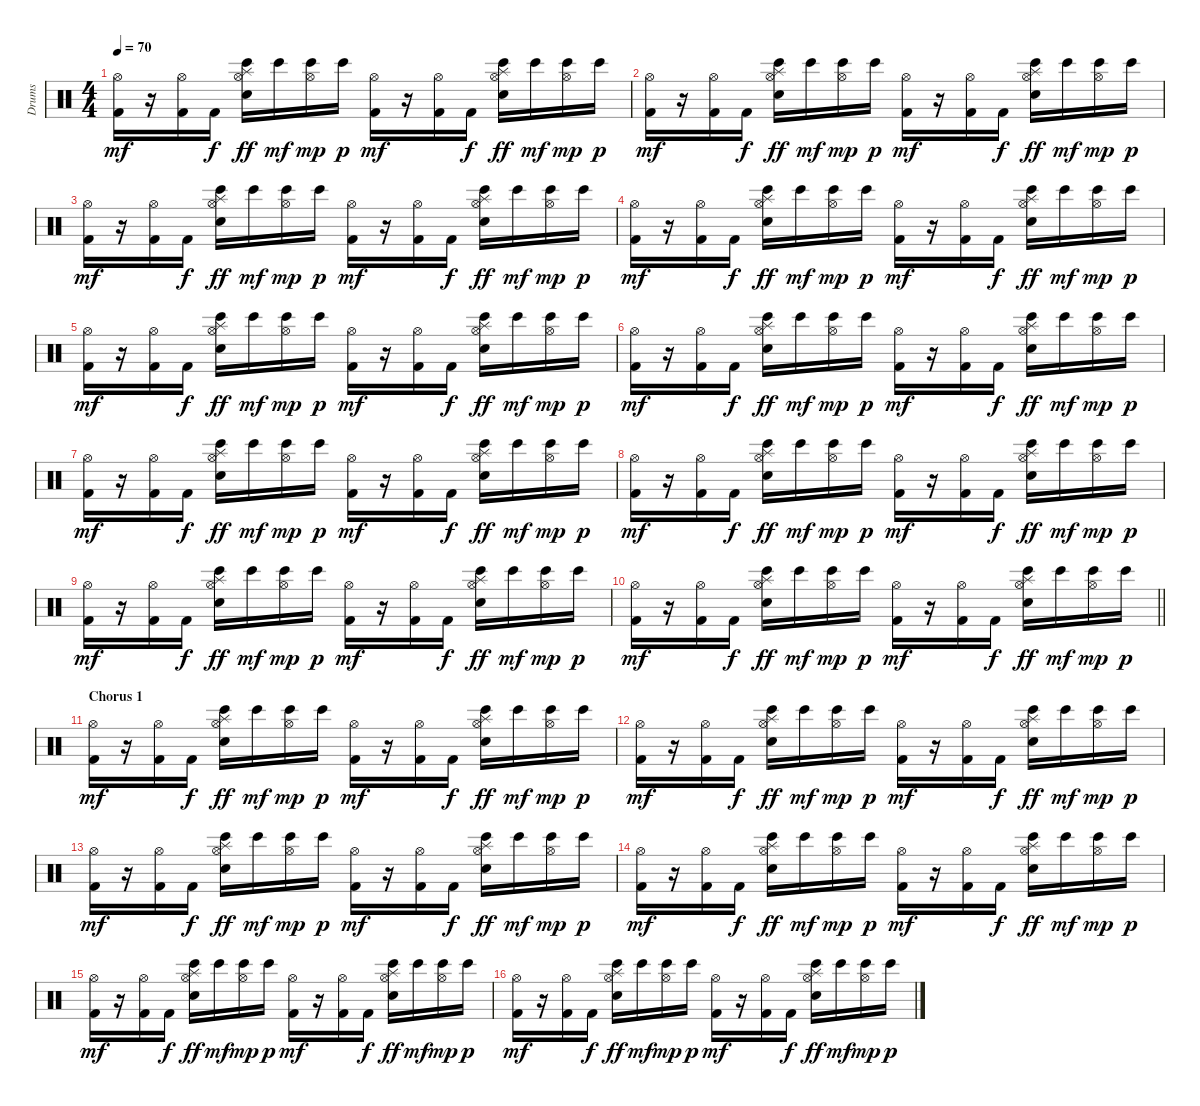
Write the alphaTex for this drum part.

\track ("Drums" "Drums") {instrument percussion}
\staff {score}
\articulation defaults
\ts (4 4)
\tempo 70
\clef neutral
\ks c
("Hi-Hat (open)" "Kick (hit) 2").16{dy mf} r.16 ("Hi-Hat (open)" "Kick (hit) 2").16 "Kick (hit) 2".16{dy f} ("Hi-Hat (open)" "Splash (hit)" "Snare (hit) 2" "Bongo High (hit)").16{dy ff} "Bongo High (hit)".16{dy mf} ("Hi-Hat (open)" "Bongo High (hit)").16{dy mp} "Bongo High (hit)".16{dy p} ("Hi-Hat (open)" "Kick (hit) 2").16{dy mf} r.16 ("Hi-Hat (open)" "Kick (hit) 2").16 "Kick (hit) 2".16{dy f} ("Hi-Hat (open)" "Splash (hit)" "Snare (hit) 2" "Bongo High (hit)").16{dy ff} "Bongo High (hit)".16{dy mf} ("Hi-Hat (open)" "Bongo High (hit)").16{dy mp} "Bongo High (hit)".16{dy p} |
("Hi-Hat (open)" "Kick (hit) 2").16{dy mf} r.16 ("Hi-Hat (open)" "Kick (hit) 2").16 "Kick (hit) 2".16{dy f} ("Hi-Hat (open)" "Splash (hit)" "Snare (hit) 2" "Bongo High (hit)").16{dy ff} "Bongo High (hit)".16{dy mf} ("Hi-Hat (open)" "Bongo High (hit)").16{dy mp} "Bongo High (hit)".16{dy p} ("Hi-Hat (open)" "Kick (hit) 2").16{dy mf} r.16 ("Hi-Hat (open)" "Kick (hit) 2").16 "Kick (hit) 2".16{dy f} ("Hi-Hat (open)" "Splash (hit)" "Snare (hit) 2" "Bongo High (hit)").16{dy ff} "Bongo High (hit)".16{dy mf} ("Hi-Hat (open)" "Bongo High (hit)").16{dy mp} "Bongo High (hit)".16{dy p} |
("Hi-Hat (open)" "Kick (hit) 2").16{dy mf} r.16 ("Hi-Hat (open)" "Kick (hit) 2").16 "Kick (hit) 2".16{dy f} ("Hi-Hat (open)" "Splash (hit)" "Snare (hit) 2" "Bongo High (hit)").16{dy ff} "Bongo High (hit)".16{dy mf} ("Hi-Hat (open)" "Bongo High (hit)").16{dy mp} "Bongo High (hit)".16{dy p} ("Hi-Hat (open)" "Kick (hit) 2").16{dy mf} r.16 ("Hi-Hat (open)" "Kick (hit) 2").16 "Kick (hit) 2".16{dy f} ("Hi-Hat (open)" "Splash (hit)" "Snare (hit) 2" "Bongo High (hit)").16{dy ff} "Bongo High (hit)".16{dy mf} ("Hi-Hat (open)" "Bongo High (hit)").16{dy mp} "Bongo High (hit)".16{dy p} |
("Hi-Hat (open)" "Kick (hit) 2").16{dy mf} r.16 ("Hi-Hat (open)" "Kick (hit) 2").16 "Kick (hit) 2".16{dy f} ("Hi-Hat (open)" "Splash (hit)" "Snare (hit) 2" "Bongo High (hit)").16{dy ff} "Bongo High (hit)".16{dy mf} ("Hi-Hat (open)" "Bongo High (hit)").16{dy mp} "Bongo High (hit)".16{dy p} ("Hi-Hat (open)" "Kick (hit) 2").16{dy mf} r.16 ("Hi-Hat (open)" "Kick (hit) 2").16 "Kick (hit) 2".16{dy f} ("Hi-Hat (open)" "Splash (hit)" "Snare (hit) 2" "Bongo High (hit)").16{dy ff} "Bongo High (hit)".16{dy mf} ("Hi-Hat (open)" "Bongo High (hit)").16{dy mp} "Bongo High (hit)".16{dy p} |
("Hi-Hat (open)" "Kick (hit) 2").16{dy mf} r.16 ("Hi-Hat (open)" "Kick (hit) 2").16 "Kick (hit) 2".16{dy f} ("Hi-Hat (open)" "Splash (hit)" "Snare (hit) 2" "Bongo High (hit)").16{dy ff} "Bongo High (hit)".16{dy mf} ("Hi-Hat (open)" "Bongo High (hit)").16{dy mp} "Bongo High (hit)".16{dy p} ("Hi-Hat (open)" "Kick (hit) 2").16{dy mf} r.16 ("Hi-Hat (open)" "Kick (hit) 2").16 "Kick (hit) 2".16{dy f} ("Hi-Hat (open)" "Splash (hit)" "Snare (hit) 2" "Bongo High (hit)").16{dy ff} "Bongo High (hit)".16{dy mf} ("Hi-Hat (open)" "Bongo High (hit)").16{dy mp} "Bongo High (hit)".16{dy p} |
("Hi-Hat (open)" "Kick (hit) 2").16{dy mf} r.16 ("Hi-Hat (open)" "Kick (hit) 2").16 "Kick (hit) 2".16{dy f} ("Hi-Hat (open)" "Splash (hit)" "Snare (hit) 2" "Bongo High (hit)").16{dy ff} "Bongo High (hit)".16{dy mf} ("Hi-Hat (open)" "Bongo High (hit)").16{dy mp} "Bongo High (hit)".16{dy p} ("Hi-Hat (open)" "Kick (hit) 2").16{dy mf} r.16 ("Hi-Hat (open)" "Kick (hit) 2").16 "Kick (hit) 2".16{dy f} ("Hi-Hat (open)" "Splash (hit)" "Snare (hit) 2" "Bongo High (hit)").16{dy ff} "Bongo High (hit)".16{dy mf} ("Hi-Hat (open)" "Bongo High (hit)").16{dy mp} "Bongo High (hit)".16{dy p} |
("Hi-Hat (open)" "Kick (hit) 2").16{dy mf} r.16 ("Hi-Hat (open)" "Kick (hit) 2").16 "Kick (hit) 2".16{dy f} ("Hi-Hat (open)" "Splash (hit)" "Snare (hit) 2" "Bongo High (hit)").16{dy ff} "Bongo High (hit)".16{dy mf} ("Hi-Hat (open)" "Bongo High (hit)").16{dy mp} "Bongo High (hit)".16{dy p} ("Hi-Hat (open)" "Kick (hit) 2").16{dy mf} r.16 ("Hi-Hat (open)" "Kick (hit) 2").16 "Kick (hit) 2".16{dy f} ("Hi-Hat (open)" "Splash (hit)" "Snare (hit) 2" "Bongo High (hit)").16{dy ff} "Bongo High (hit)".16{dy mf} ("Hi-Hat (open)" "Bongo High (hit)").16{dy mp} "Bongo High (hit)".16{dy p} |
("Hi-Hat (open)" "Kick (hit) 2").16{dy mf} r.16 ("Hi-Hat (open)" "Kick (hit) 2").16 "Kick (hit) 2".16{dy f} ("Hi-Hat (open)" "Splash (hit)" "Snare (hit) 2" "Bongo High (hit)").16{dy ff} "Bongo High (hit)".16{dy mf} ("Hi-Hat (open)" "Bongo High (hit)").16{dy mp} "Bongo High (hit)".16{dy p} ("Hi-Hat (open)" "Kick (hit) 2").16{dy mf} r.16 ("Hi-Hat (open)" "Kick (hit) 2").16 "Kick (hit) 2".16{dy f} ("Hi-Hat (open)" "Splash (hit)" "Snare (hit) 2" "Bongo High (hit)").16{dy ff} "Bongo High (hit)".16{dy mf} ("Hi-Hat (open)" "Bongo High (hit)").16{dy mp} "Bongo High (hit)".16{dy p} |
("Hi-Hat (open)" "Kick (hit) 2").16{dy mf} r.16 ("Hi-Hat (open)" "Kick (hit) 2").16 "Kick (hit) 2".16{dy f} ("Hi-Hat (open)" "Splash (hit)" "Snare (hit) 2" "Bongo High (hit)").16{dy ff} "Bongo High (hit)".16{dy mf} ("Hi-Hat (open)" "Bongo High (hit)").16{dy mp} "Bongo High (hit)".16{dy p} ("Hi-Hat (open)" "Kick (hit) 2").16{dy mf} r.16 ("Hi-Hat (open)" "Kick (hit) 2").16 "Kick (hit) 2".16{dy f} ("Hi-Hat (open)" "Splash (hit)" "Snare (hit) 2" "Bongo High (hit)").16{dy ff} "Bongo High (hit)".16{dy mf} ("Hi-Hat (open)" "Bongo High (hit)").16{dy mp} "Bongo High (hit)".16{dy p} |
\barLineRight lightlight
("Hi-Hat (open)" "Kick (hit) 2").16{dy mf} r.16 ("Hi-Hat (open)" "Kick (hit) 2").16 "Kick (hit) 2".16{dy f} ("Hi-Hat (open)" "Splash (hit)" "Snare (hit) 2" "Bongo High (hit)").16{dy ff} "Bongo High (hit)".16{dy mf} ("Hi-Hat (open)" "Bongo High (hit)").16{dy mp} "Bongo High (hit)".16{dy p} ("Hi-Hat (open)" "Kick (hit) 2").16{dy mf} r.16 ("Hi-Hat (open)" "Kick (hit) 2").16 "Kick (hit) 2".16{dy f} ("Hi-Hat (open)" "Splash (hit)" "Snare (hit) 2" "Bongo High (hit)").16{dy ff} "Bongo High (hit)".16{dy mf} ("Hi-Hat (open)" "Bongo High (hit)").16{dy mp} "Bongo High (hit)".16{dy p} |
\section ("" "Chorus 1")
("Hi-Hat (open)" "Kick (hit) 2").16{dy mf} r.16 ("Hi-Hat (open)" "Kick (hit) 2").16 "Kick (hit) 2".16{dy f} ("Hi-Hat (open)" "Splash (hit)" "Snare (hit) 2" "Bongo High (hit)").16{dy ff} "Bongo High (hit)".16{dy mf} ("Hi-Hat (open)" "Bongo High (hit)").16{dy mp} "Bongo High (hit)".16{dy p} ("Hi-Hat (open)" "Kick (hit) 2").16{dy mf} r.16 ("Hi-Hat (open)" "Kick (hit) 2").16 "Kick (hit) 2".16{dy f} ("Hi-Hat (open)" "Splash (hit)" "Snare (hit) 2" "Bongo High (hit)").16{dy ff} "Bongo High (hit)".16{dy mf} ("Hi-Hat (open)" "Bongo High (hit)").16{dy mp} "Bongo High (hit)".16{dy p} |
("Hi-Hat (open)" "Kick (hit) 2").16{dy mf} r.16 ("Hi-Hat (open)" "Kick (hit) 2").16 "Kick (hit) 2".16{dy f} ("Hi-Hat (open)" "Splash (hit)" "Snare (hit) 2" "Bongo High (hit)").16{dy ff} "Bongo High (hit)".16{dy mf} ("Hi-Hat (open)" "Bongo High (hit)").16{dy mp} "Bongo High (hit)".16{dy p} ("Hi-Hat (open)" "Kick (hit) 2").16{dy mf} r.16 ("Hi-Hat (open)" "Kick (hit) 2").16 "Kick (hit) 2".16{dy f} ("Hi-Hat (open)" "Splash (hit)" "Snare (hit) 2" "Bongo High (hit)").16{dy ff} "Bongo High (hit)".16{dy mf} ("Hi-Hat (open)" "Bongo High (hit)").16{dy mp} "Bongo High (hit)".16{dy p} |
("Hi-Hat (open)" "Kick (hit) 2").16{dy mf} r.16 ("Hi-Hat (open)" "Kick (hit) 2").16 "Kick (hit) 2".16{dy f} ("Hi-Hat (open)" "Splash (hit)" "Snare (hit) 2" "Bongo High (hit)").16{dy ff} "Bongo High (hit)".16{dy mf} ("Hi-Hat (open)" "Bongo High (hit)").16{dy mp} "Bongo High (hit)".16{dy p} ("Hi-Hat (open)" "Kick (hit) 2").16{dy mf} r.16 ("Hi-Hat (open)" "Kick (hit) 2").16 "Kick (hit) 2".16{dy f} ("Hi-Hat (open)" "Splash (hit)" "Snare (hit) 2" "Bongo High (hit)").16{dy ff} "Bongo High (hit)".16{dy mf} ("Hi-Hat (open)" "Bongo High (hit)").16{dy mp} "Bongo High (hit)".16{dy p} |
("Hi-Hat (open)" "Kick (hit) 2").16{dy mf} r.16 ("Hi-Hat (open)" "Kick (hit) 2").16 "Kick (hit) 2".16{dy f} ("Hi-Hat (open)" "Splash (hit)" "Snare (hit) 2" "Bongo High (hit)").16{dy ff} "Bongo High (hit)".16{dy mf} ("Hi-Hat (open)" "Bongo High (hit)").16{dy mp} "Bongo High (hit)".16{dy p} ("Hi-Hat (open)" "Kick (hit) 2").16{dy mf} r.16 ("Hi-Hat (open)" "Kick (hit) 2").16 "Kick (hit) 2".16{dy f} ("Hi-Hat (open)" "Splash (hit)" "Snare (hit) 2" "Bongo High (hit)").16{dy ff} "Bongo High (hit)".16{dy mf} ("Hi-Hat (open)" "Bongo High (hit)").16{dy mp} "Bongo High (hit)".16{dy p} |
("Hi-Hat (open)" "Kick (hit) 2").16{dy mf} r.16 ("Hi-Hat (open)" "Kick (hit) 2").16 "Kick (hit) 2".16{dy f} ("Hi-Hat (open)" "Splash (hit)" "Snare (hit) 2" "Bongo High (hit)").16{dy ff} "Bongo High (hit)".16{dy mf} ("Hi-Hat (open)" "Bongo High (hit)").16{dy mp} "Bongo High (hit)".16{dy p} ("Hi-Hat (open)" "Kick (hit) 2").16{dy mf} r.16 ("Hi-Hat (open)" "Kick (hit) 2").16 "Kick (hit) 2".16{dy f} ("Hi-Hat (open)" "Splash (hit)" "Snare (hit) 2" "Bongo High (hit)").16{dy ff} "Bongo High (hit)".16{dy mf} ("Hi-Hat (open)" "Bongo High (hit)").16{dy mp} "Bongo High (hit)".16{dy p} |
("Hi-Hat (open)" "Kick (hit) 2").16{dy mf} r.16 ("Hi-Hat (open)" "Kick (hit) 2").16 "Kick (hit) 2".16{dy f} ("Hi-Hat (open)" "Splash (hit)" "Snare (hit) 2" "Bongo High (hit)").16{dy ff} "Bongo High (hit)".16{dy mf} ("Hi-Hat (open)" "Bongo High (hit)").16{dy mp} "Bongo High (hit)".16{dy p} ("Hi-Hat (open)" "Kick (hit) 2").16{dy mf} r.16 ("Hi-Hat (open)" "Kick (hit) 2").16 "Kick (hit) 2".16{dy f} ("Hi-Hat (open)" "Splash (hit)" "Snare (hit) 2" "Bongo High (hit)").16{dy ff} "Bongo High (hit)".16{dy mf} ("Hi-Hat (open)" "Bongo High (hit)").16{dy mp} "Bongo High (hit)".16{dy p}
